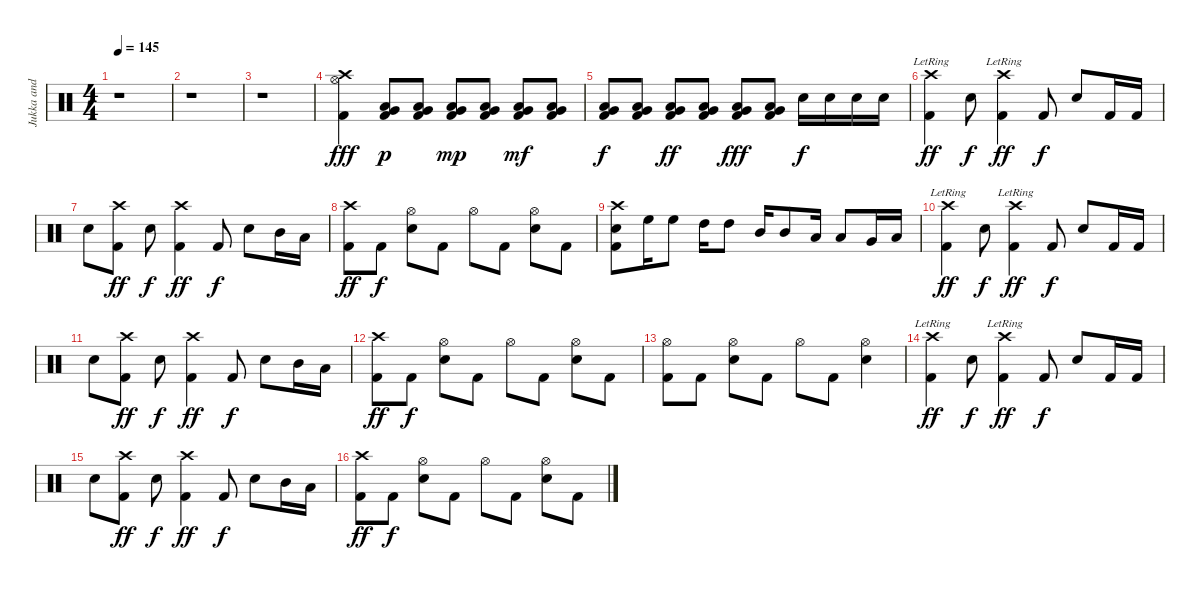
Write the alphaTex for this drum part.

\track ("Jukka and his drums" "Jukka and ") {instrument percussion}
\staff {score}
\articulation defaults
\ts (4 4)
\tempo 145
\clef neutral
\ks c
r.1{dy f} |
r.1 |
r.1 |
("Kick (hit) 2" "Crash high (hit)" "Hi-Hat (open)").4{dy fff} ("Kick (hit) 2" "Low Tom (hit)" "Very Low Tom (hit)").8{dy p} ("Kick (hit) 2" "Low Tom (hit)" "Very Low Tom (hit)").8 ("Kick (hit) 2" "Low Tom (hit)" "Very Low Tom (hit)").8{dy mp} ("Kick (hit) 2" "Low Tom (hit)" "Very Low Tom (hit)").8 ("Kick (hit) 2" "Low Tom (hit)" "Very Low Tom (hit)").8{dy mf} ("Kick (hit) 2" "Low Tom (hit)" "Very Low Tom (hit)").8 |
("Kick (hit) 2" "Low Tom (hit)" "Very Low Tom (hit)").8{dy f} ("Kick (hit) 2" "Low Tom (hit)" "Very Low Tom (hit)").8 ("Kick (hit) 2" "Low Tom (hit)" "Very Low Tom (hit)").8{dy ff} ("Kick (hit) 2" "Low Tom (hit)" "Very Low Tom (hit)").8 ("Kick (hit) 2" "Low Tom (hit)" "Very Low Tom (hit)").8{dy fff} ("Kick (hit) 2" "Low Tom (hit)" "Very Low Tom (hit)").8 "Snare (hit) 2".16{dy f} "Snare (hit) 2".16 "Snare (hit) 2".16 "Snare (hit) 2".16 |
("Kick (hit) 2" "Crash high (hit)"{lr}).4{dy ff} "Snare (hit) 2".8{dy f} ("Kick (hit) 2" "Crash high (hit)"{lr}).4{dy ff} "Kick (hit) 2".8{dy f} "Snare (hit) 2".8 "Kick (hit) 2".16 "Kick (hit) 2".16 |
"Snare (hit) 2".8 ("Kick (hit) 2" "Crash high (hit)").8{dy ff} "Snare (hit) 2".8{dy f} ("Kick (hit) 2" "Crash high (hit)").4{dy ff} "Kick (hit) 2".8{dy f} "Snare (hit) 2".8 "Mid Tom (hit)".16 "Low Tom (hit)".16 |
("Kick (hit) 2" "Crash high (hit)").8{dy ff} "Kick (hit) 2".8{dy f} ("Hi-Hat (open)" "Snare (hit) 2").8 "Kick (hit) 2".8 "Hi-Hat (open)".8 "Kick (hit) 2".8 ("Hi-Hat (open)" "Snare (hit) 2").8 "Kick (hit) 2".8 |
("Kick (hit) 2" "Crash high (hit)" "Snare (hit) 2").8 "High Floor Tom (hit)".16 "High Floor Tom (hit)".8 "High Tom (hit)".16 "High Tom (hit)".8 "Mid Tom (hit)".16 "Mid Tom (hit)".8 "Low Tom (hit)".16 "Low Tom (hit)".8 "Very Low Tom (hit)".16 "Low Floor Tom (hit)".16 |
("Kick (hit) 2" "Crash high (hit)"{lr}).4{dy ff} "Snare (hit) 2".8{dy f} ("Kick (hit) 2" "Crash high (hit)"{lr}).4{dy ff} "Kick (hit) 2".8{dy f} "Snare (hit) 2".8 "Kick (hit) 2".16 "Kick (hit) 2".16 |
"Snare (hit) 2".8 ("Kick (hit) 2" "Crash high (hit)").8{dy ff} "Snare (hit) 2".8{dy f} ("Kick (hit) 2" "Crash high (hit)").4{dy ff} "Kick (hit) 2".8{dy f} "Snare (hit) 2".8 "Mid Tom (hit)".16 "Low Tom (hit)".16 |
("Kick (hit) 2" "Crash high (hit)").8{dy ff} "Kick (hit) 2".8{dy f} ("Hi-Hat (open)" "Snare (hit) 2").8 "Kick (hit) 2".8 "Hi-Hat (open)".8 "Kick (hit) 2".8 ("Hi-Hat (open)" "Snare (hit) 2").8 "Kick (hit) 2".8 |
("Kick (hit) 2" "Hi-Hat (open)").8 "Kick (hit) 2".8 ("Hi-Hat (open)" "Snare (hit) 2").8 "Kick (hit) 2".8 "Hi-Hat (open)".8 "Kick (hit) 2".8 ("Hi-Hat (open)" "Snare (hit) 2").4 |
("Kick (hit) 2" "Crash high (hit)"{lr}).4{dy ff} "Snare (hit) 2".8{dy f} ("Kick (hit) 2" "Crash high (hit)"{lr}).4{dy ff} "Kick (hit) 2".8{dy f} "Snare (hit) 2".8 "Kick (hit) 2".16 "Kick (hit) 2".16 |
"Snare (hit) 2".8 ("Kick (hit) 2" "Crash high (hit)").8{dy ff} "Snare (hit) 2".8{dy f} ("Kick (hit) 2" "Crash high (hit)").4{dy ff} "Kick (hit) 2".8{dy f} "Snare (hit) 2".8 "Mid Tom (hit)".16 "Low Tom (hit)".16 |
("Kick (hit) 2" "Crash high (hit)").8{dy ff} "Kick (hit) 2".8{dy f} ("Hi-Hat (open)" "Snare (hit) 2").8 "Kick (hit) 2".8 "Hi-Hat (open)".8 "Kick (hit) 2".8 ("Hi-Hat (open)" "Snare (hit) 2").8 "Kick (hit) 2".8
